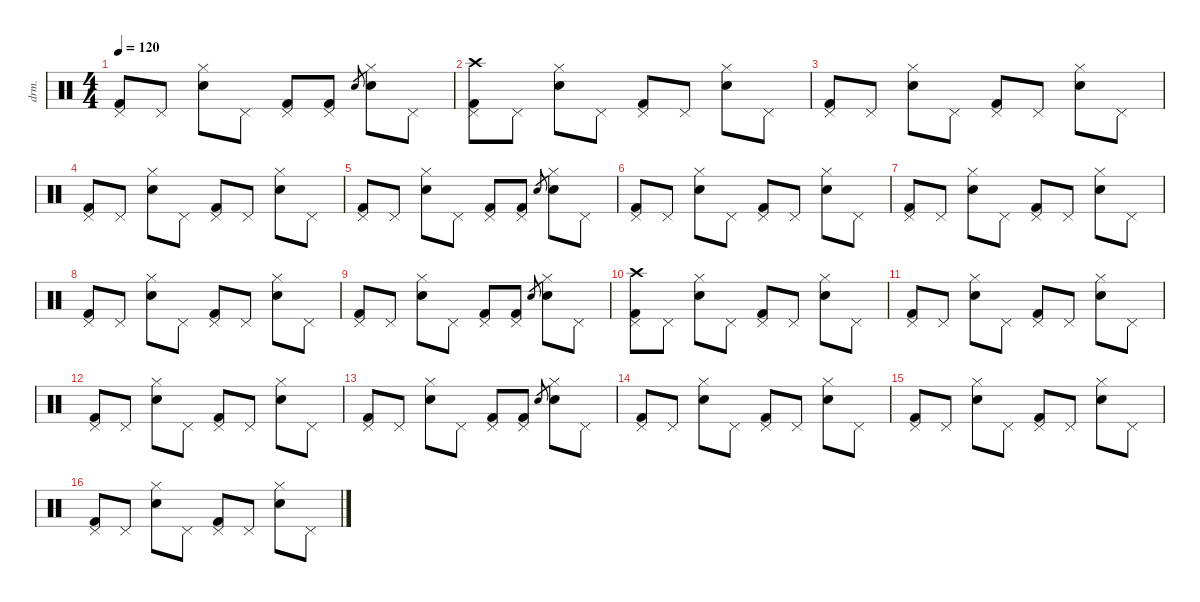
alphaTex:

\defaultSystemsLayout 4
\hideDynamics
\bracketExtendMode nobrackets
\otherSystemsTrackNameOrientation horizontal
\track ("Jeff Campitelli" "drm.") {instrument percussion}
\staff {score}
\articulation defaults
\ts (4 4)
\tempo 120
\clef neutral
\ks c
("Pedal Hi-Hat (hit)" "Kick (hit) 2").8{dy f beam Up} "Pedal Hi-Hat (hit)".8{beam Up} ("Hi-Hat (closed)" "Snare (hit) 2").8{beam Down} "Pedal Hi-Hat (hit)".8{beam Down} ("Pedal Hi-Hat (hit)" "Kick (hit) 2").8{beam Up} ("Pedal Hi-Hat (hit)" "Kick (hit) 2").8{beam Up} "Snare (hit) 2".8{gr dy mf beam Up} ("Hi-Hat (closed)" "Snare (hit) 2").8{dy f beam Down} "Pedal Hi-Hat (hit)".8{beam Down} |
("Crash high (hit)" "Pedal Hi-Hat (hit)" "Kick (hit) 2").8{beam Down} "Pedal Hi-Hat (hit)".8{beam Down} ("Hi-Hat (closed)" "Snare (hit) 2").8{beam Down} "Pedal Hi-Hat (hit)".8{beam Down} ("Pedal Hi-Hat (hit)" "Kick (hit) 2").8{beam Up} "Pedal Hi-Hat (hit)".8{beam Up} ("Hi-Hat (closed)" "Snare (hit) 2").8{beam Down} "Pedal Hi-Hat (hit)".8{beam Down} |
("Pedal Hi-Hat (hit)" "Kick (hit) 2").8{beam Up} "Pedal Hi-Hat (hit)".8{beam Up} ("Hi-Hat (closed)" "Snare (hit) 2").8{beam Down} "Pedal Hi-Hat (hit)".8{beam Down} ("Pedal Hi-Hat (hit)" "Kick (hit) 2").8{beam Up} "Pedal Hi-Hat (hit)".8{beam Up} ("Hi-Hat (closed)" "Snare (hit) 2").8{beam Down} "Pedal Hi-Hat (hit)".8{beam Down} |
("Pedal Hi-Hat (hit)" "Kick (hit) 2").8{beam Up} "Pedal Hi-Hat (hit)".8{beam Up} ("Hi-Hat (closed)" "Snare (hit) 2").8{beam Down} "Pedal Hi-Hat (hit)".8{beam Down} ("Pedal Hi-Hat (hit)" "Kick (hit) 2").8{beam Up} "Pedal Hi-Hat (hit)".8{beam Up} ("Hi-Hat (closed)" "Snare (hit) 2").8{beam Down} "Pedal Hi-Hat (hit)".8{beam Down} |
("Pedal Hi-Hat (hit)" "Kick (hit) 2").8{beam Up} "Pedal Hi-Hat (hit)".8{beam Up} ("Hi-Hat (closed)" "Snare (hit) 2").8{beam Down} "Pedal Hi-Hat (hit)".8{beam Down} ("Pedal Hi-Hat (hit)" "Kick (hit) 2").8{beam Up} ("Pedal Hi-Hat (hit)" "Kick (hit) 2").8{beam Up} "Snare (hit) 2".8{gr dy mf beam Up} ("Hi-Hat (closed)" "Snare (hit) 2").8{dy f beam Down} "Pedal Hi-Hat (hit)".8{beam Down} |
("Pedal Hi-Hat (hit)" "Kick (hit) 2").8{beam Up} "Pedal Hi-Hat (hit)".8{beam Up} ("Hi-Hat (closed)" "Snare (hit) 2").8{beam Down} "Pedal Hi-Hat (hit)".8{beam Down} ("Pedal Hi-Hat (hit)" "Kick (hit) 2").8{beam Up} "Pedal Hi-Hat (hit)".8{beam Up} ("Hi-Hat (closed)" "Snare (hit) 2").8{beam Down} "Pedal Hi-Hat (hit)".8{beam Down} |
("Pedal Hi-Hat (hit)" "Kick (hit) 2").8{beam Up} "Pedal Hi-Hat (hit)".8{beam Up} ("Hi-Hat (closed)" "Snare (hit) 2").8{beam Down} "Pedal Hi-Hat (hit)".8{beam Down} ("Pedal Hi-Hat (hit)" "Kick (hit) 2").8{beam Up} "Pedal Hi-Hat (hit)".8{beam Up} ("Hi-Hat (closed)" "Snare (hit) 2").8{beam Down} "Pedal Hi-Hat (hit)".8{beam Down} |
("Pedal Hi-Hat (hit)" "Kick (hit) 2").8{beam Up} "Pedal Hi-Hat (hit)".8{beam Up} ("Hi-Hat (closed)" "Snare (hit) 2").8{beam Down} "Pedal Hi-Hat (hit)".8{beam Down} ("Pedal Hi-Hat (hit)" "Kick (hit) 2").8{beam Up} "Pedal Hi-Hat (hit)".8{beam Up} ("Hi-Hat (closed)" "Snare (hit) 2").8{beam Down} "Pedal Hi-Hat (hit)".8{beam Down} |
("Pedal Hi-Hat (hit)" "Kick (hit) 2").8{beam Up} "Pedal Hi-Hat (hit)".8{beam Up} ("Hi-Hat (closed)" "Snare (hit) 2").8{beam Down} "Pedal Hi-Hat (hit)".8{beam Down} ("Pedal Hi-Hat (hit)" "Kick (hit) 2").8{beam Up} ("Pedal Hi-Hat (hit)" "Kick (hit) 2").8{beam Up} "Snare (hit) 2".8{gr dy mf beam Up} ("Hi-Hat (closed)" "Snare (hit) 2").8{dy f beam Down} "Pedal Hi-Hat (hit)".8{beam Down} |
("Crash high (hit)" "Pedal Hi-Hat (hit)" "Kick (hit) 2").8{beam Down} "Pedal Hi-Hat (hit)".8{beam Down} ("Hi-Hat (closed)" "Snare (hit) 2").8{beam Down} "Pedal Hi-Hat (hit)".8{beam Down} ("Pedal Hi-Hat (hit)" "Kick (hit) 2").8{beam Up} "Pedal Hi-Hat (hit)".8{beam Up} ("Hi-Hat (closed)" "Snare (hit) 2").8{beam Down} "Pedal Hi-Hat (hit)".8{beam Down} |
("Pedal Hi-Hat (hit)" "Kick (hit) 2").8{beam Up} "Pedal Hi-Hat (hit)".8{beam Up} ("Hi-Hat (closed)" "Snare (hit) 2").8{beam Down} "Pedal Hi-Hat (hit)".8{beam Down} ("Pedal Hi-Hat (hit)" "Kick (hit) 2").8{beam Up} "Pedal Hi-Hat (hit)".8{beam Up} ("Hi-Hat (closed)" "Snare (hit) 2").8{beam Down} "Pedal Hi-Hat (hit)".8{beam Down} |
("Pedal Hi-Hat (hit)" "Kick (hit) 2").8{beam Up} "Pedal Hi-Hat (hit)".8{beam Up} ("Hi-Hat (closed)" "Snare (hit) 2").8{beam Down} "Pedal Hi-Hat (hit)".8{beam Down} ("Pedal Hi-Hat (hit)" "Kick (hit) 2").8{beam Up} "Pedal Hi-Hat (hit)".8{beam Up} ("Hi-Hat (closed)" "Snare (hit) 2").8{beam Down} "Pedal Hi-Hat (hit)".8{beam Down} |
("Pedal Hi-Hat (hit)" "Kick (hit) 2").8{beam Up} "Pedal Hi-Hat (hit)".8{beam Up} ("Hi-Hat (closed)" "Snare (hit) 2").8{beam Down} "Pedal Hi-Hat (hit)".8{beam Down} ("Pedal Hi-Hat (hit)" "Kick (hit) 2").8{beam Up} ("Pedal Hi-Hat (hit)" "Kick (hit) 2").8{beam Up} "Snare (hit) 2".8{gr dy mf beam Up} ("Hi-Hat (closed)" "Snare (hit) 2").8{dy f beam Down} "Pedal Hi-Hat (hit)".8{beam Down} |
("Pedal Hi-Hat (hit)" "Kick (hit) 2").8{beam Up} "Pedal Hi-Hat (hit)".8{beam Up} ("Hi-Hat (closed)" "Snare (hit) 2").8{beam Down} "Pedal Hi-Hat (hit)".8{beam Down} ("Pedal Hi-Hat (hit)" "Kick (hit) 2").8{beam Up} "Pedal Hi-Hat (hit)".8{beam Up} ("Hi-Hat (closed)" "Snare (hit) 2").8{beam Down} "Pedal Hi-Hat (hit)".8{beam Down} |
("Pedal Hi-Hat (hit)" "Kick (hit) 2").8{beam Up} "Pedal Hi-Hat (hit)".8{beam Up} ("Hi-Hat (closed)" "Snare (hit) 2").8{beam Down} "Pedal Hi-Hat (hit)".8{beam Down} ("Pedal Hi-Hat (hit)" "Kick (hit) 2").8{beam Up} "Pedal Hi-Hat (hit)".8{beam Up} ("Hi-Hat (closed)" "Snare (hit) 2").8{beam Down} "Pedal Hi-Hat (hit)".8{beam Down} |
("Pedal Hi-Hat (hit)" "Kick (hit) 2").8{beam Up} "Pedal Hi-Hat (hit)".8{beam Up} ("Hi-Hat (closed)" "Snare (hit) 2").8{beam Down} "Pedal Hi-Hat (hit)".8{beam Down} ("Pedal Hi-Hat (hit)" "Kick (hit) 2").8{beam Up} "Pedal Hi-Hat (hit)".8{beam Up} ("Hi-Hat (closed)" "Snare (hit) 2").8{beam Down} "Pedal Hi-Hat (hit)".8{beam Down}
